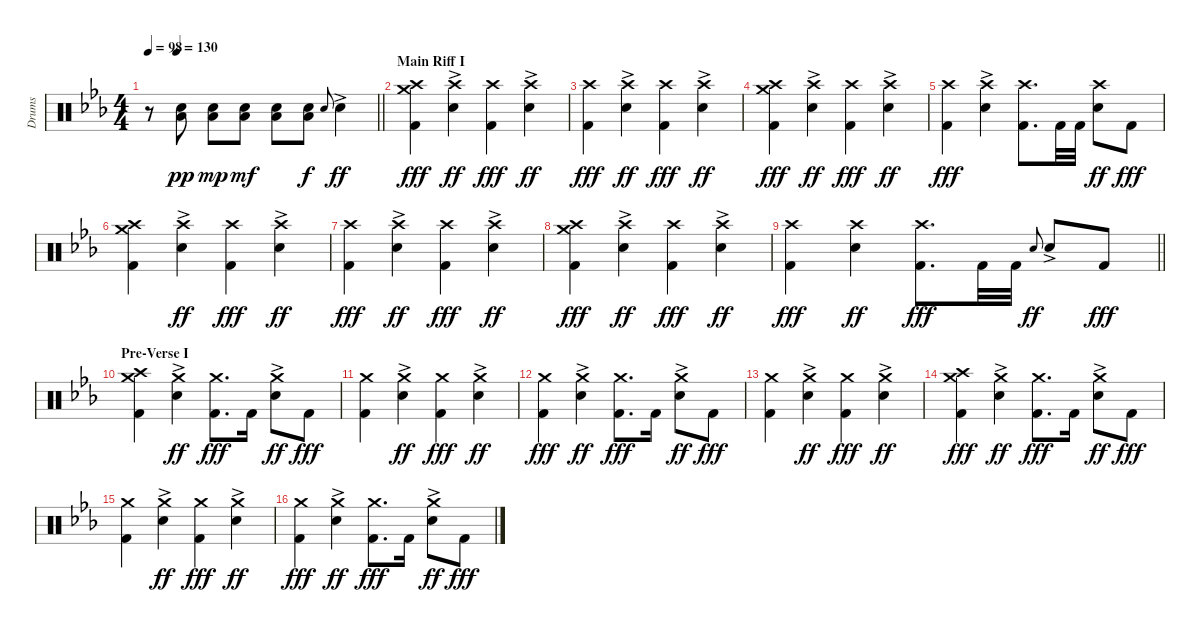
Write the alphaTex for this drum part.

\track ("Drums" "Drums") {instrument percussion}
\staff {score}
\articulation defaults
\ts (4 4)
\tempo 98
\tempo (130 0.125)
\clef neutral
\barLineRight lightlight
\ks cminor
r.8{dy fff} ("Low Tom (hit)" "Electric Snare (hit)").8{dy pp} ("Low Tom (hit)" "Electric Snare (hit)").8{dy mp} ("Low Tom (hit)" "Electric Snare (hit)").8{dy mf} ("Low Tom (hit)" "Electric Snare (hit)").8 ("Low Tom (hit)" "Electric Snare (hit)").8{dy f} "Electric Snare (hit)".8{gr onbeat} "Electric Snare (hit)"{ac}.4{dy ff} |
\section ("" "Main Riff I")
("Crash high (hit)" "Crash medium (hit)" "Kick (hit) 2").4{dy fff} ("Crash high (hit)" "Electric Snare (hit)"{ac}).4{dy ff} ("Crash high (hit)" "Kick (hit) 2").4{dy fff} ("Crash high (hit)" "Electric Snare (hit)"{ac}).4{dy ff} |
("Crash high (hit)" "Kick (hit) 2").4{dy fff} ("Crash high (hit)" "Electric Snare (hit)"{ac}).4{dy ff} ("Crash high (hit)" "Kick (hit) 2").4{dy fff} ("Crash high (hit)" "Electric Snare (hit)"{ac}).4{dy ff} |
("Crash high (hit)" "Crash medium (hit)" "Kick (hit) 2").4{dy fff} ("Crash high (hit)" "Electric Snare (hit)"{ac}).4{dy ff} ("Crash high (hit)" "Kick (hit) 2").4{dy fff} ("Crash high (hit)" "Electric Snare (hit)"{ac}).4{dy ff} |
("Crash high (hit)" "Kick (hit) 2").4{dy fff} ("Crash high (hit)" "Electric Snare (hit)"{ac}).4 ("Crash high (hit)" "Kick (hit) 2").8{d} "Kick (hit) 2".32 "Kick (hit) 2".32 ("Crash high (hit)" "Electric Snare (hit)").8{dy ff} "Kick (hit) 2".8{dy fff} |
("Crash high (hit)" "Crash medium (hit)" "Kick (hit) 2").4 ("Crash high (hit)" "Electric Snare (hit)"{ac}).4{dy ff} ("Crash high (hit)" "Kick (hit) 2").4{dy fff} ("Crash high (hit)" "Electric Snare (hit)"{ac}).4{dy ff} |
("Crash high (hit)" "Kick (hit) 2").4{dy fff} ("Crash high (hit)" "Electric Snare (hit)"{ac}).4{dy ff} ("Crash high (hit)" "Kick (hit) 2").4{dy fff} ("Crash high (hit)" "Electric Snare (hit)"{ac}).4{dy ff} |
("Crash high (hit)" "Crash medium (hit)" "Kick (hit) 2").4{dy fff} ("Crash high (hit)" "Electric Snare (hit)"{ac}).4{dy ff} ("Crash high (hit)" "Kick (hit) 2").4{dy fff} ("Crash high (hit)" "Electric Snare (hit)"{ac}).4{dy ff} |
\barLineRight lightlight
("Crash high (hit)" "Kick (hit) 2").4{dy fff} ("Crash high (hit)" "Electric Snare (hit)").4{dy ff} ("Crash high (hit)" "Kick (hit) 2").8{d dy fff} "Kick (hit) 2".32 "Kick (hit) 2".32 "Electric Snare (hit)".8{gr onbeat dy ff} "Electric Snare (hit)"{ac}.8 "Kick (hit) 2".8{dy fff} |
\section ("" "Pre-Verse I")
("Crash medium (hit)" "Crash high (hit)" "Kick (hit) 2").4 ("Crash medium (hit)" "Electric Snare (hit)"{ac}).4{dy ff} ("Crash medium (hit)" "Kick (hit) 2").8{d dy fff} "Kick (hit) 2".16 ("Crash medium (hit)" "Electric Snare (hit)"{ac}).8{dy ff} "Kick (hit) 2".8{dy fff} |
("Crash medium (hit)" "Kick (hit) 2").4 ("Crash medium (hit)" "Electric Snare (hit)"{ac}).4{dy ff} ("Crash medium (hit)" "Kick (hit) 2").4{dy fff} ("Crash medium (hit)" "Electric Snare (hit)"{ac}).4{dy ff} |
("Crash medium (hit)" "Kick (hit) 2").4{dy fff} ("Crash medium (hit)" "Electric Snare (hit)"{ac}).4{dy ff} ("Crash medium (hit)" "Kick (hit) 2").8{d dy fff} "Kick (hit) 2".16 ("Crash medium (hit)" "Electric Snare (hit)"{ac}).8{dy ff} "Kick (hit) 2".8{dy fff} |
("Crash medium (hit)" "Kick (hit) 2").4 ("Crash medium (hit)" "Electric Snare (hit)"{ac}).4{dy ff} ("Crash medium (hit)" "Kick (hit) 2").4{dy fff} ("Crash medium (hit)" "Electric Snare (hit)"{ac}).4{dy ff} |
("Crash medium (hit)" "Crash high (hit)" "Kick (hit) 2").4{dy fff} ("Crash medium (hit)" "Electric Snare (hit)"{ac}).4{dy ff} ("Crash medium (hit)" "Kick (hit) 2").8{d dy fff} "Kick (hit) 2".16 ("Crash medium (hit)" "Electric Snare (hit)"{ac}).8{dy ff} "Kick (hit) 2".8{dy fff} |
("Crash medium (hit)" "Kick (hit) 2").4 ("Crash medium (hit)" "Electric Snare (hit)"{ac}).4{dy ff} ("Crash medium (hit)" "Kick (hit) 2").4{dy fff} ("Crash medium (hit)" "Electric Snare (hit)"{ac}).4{dy ff} |
("Crash medium (hit)" "Kick (hit) 2").4{dy fff} ("Crash medium (hit)" "Electric Snare (hit)"{ac}).4{dy ff} ("Crash medium (hit)" "Kick (hit) 2").8{d dy fff} "Kick (hit) 2".16 ("Crash medium (hit)" "Electric Snare (hit)"{ac}).8{dy ff} "Kick (hit) 2".8{dy fff}
